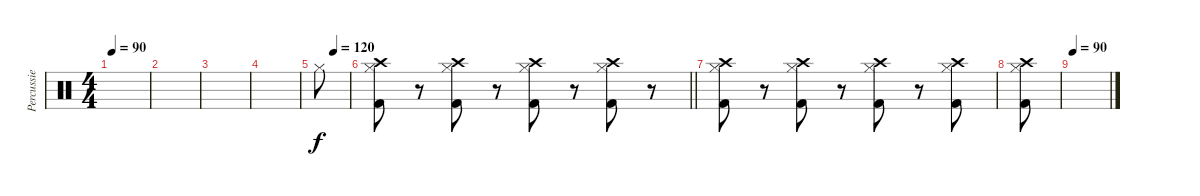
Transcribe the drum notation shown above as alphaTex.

\track ("Percussie" "Percussie") {instrument percussion}
\staff {score}
\articulation defaults
\ts (4 4)
\tempo 90
\clef neutral
\ks c
|
|
|
|
\tempo (120 0.5)
"Hi-Hat (closed)".8 |
\barLineRight lightlight
("Hi-Hat (closed)" "Crash high (hit)" "Kick (hit) 2").8 r.8 ("Hi-Hat (closed)" "Crash high (hit)" "Kick (hit) 2").8 r.8 ("Hi-Hat (closed)" "Crash high (hit)" "Kick (hit) 2").8 r.8 ("Hi-Hat (closed)" "Crash high (hit)" "Kick (hit) 2").8 r.8 |
("Hi-Hat (closed)" "Crash high (hit)" "Kick (hit) 2").8 r.8 ("Hi-Hat (closed)" "Crash high (hit)" "Kick (hit) 2").8 r.8 ("Hi-Hat (closed)" "Crash high (hit)" "Kick (hit) 2").8 r.8 ("Hi-Hat (closed)" "Crash high (hit)" "Kick (hit) 2").8 |
("Hi-Hat (closed)" "Crash high (hit)" "Kick (hit) 2").8 |
\tempo 90
